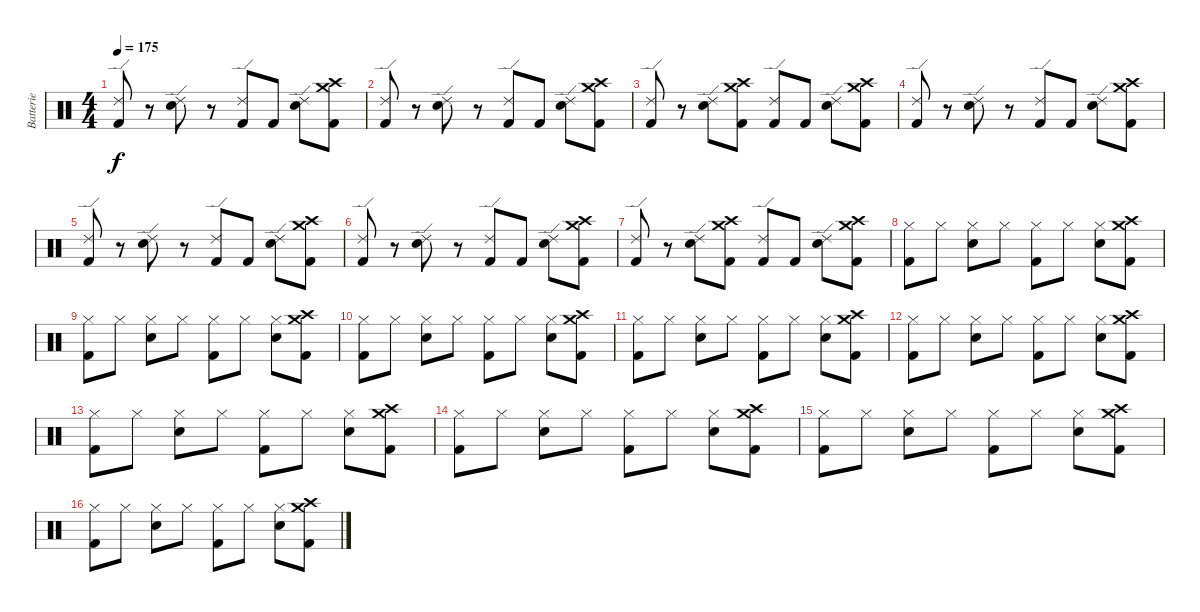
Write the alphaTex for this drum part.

\track ("Batterie" "Batterie") {instrument percussion}
\staff {score}
\articulation defaults
\ts (4 4)
\tempo 175
\clef neutral
\ks c
("Ride (edge) 2" "Kick (hit) 2").8{dy f} r.8 ("Ride (edge) 2" "Snare (hit) 2").8 r.8 ("Ride (edge) 2" "Kick (hit) 2").8 "Kick (hit) 2".8 ("Ride (edge) 2" "Snare (hit) 2").8 ("Crash medium (hit)" "Crash high (hit)" "Kick (hit) 2").8 |
("Ride (edge) 2" "Kick (hit) 2").8 r.8 ("Ride (edge) 2" "Snare (hit) 2").8 r.8 ("Ride (edge) 2" "Kick (hit) 2").8 "Kick (hit) 2".8 ("Ride (edge) 2" "Snare (hit) 2").8 ("Crash medium (hit)" "Crash high (hit)" "Kick (hit) 2").8 |
("Ride (edge) 2" "Kick (hit) 2").8 r.8 ("Ride (edge) 2" "Snare (hit) 2").8 ("Crash medium (hit)" "Crash high (hit)" "Kick (hit) 2").8 ("Ride (edge) 2" "Kick (hit) 2").8 "Kick (hit) 2".8 ("Ride (edge) 2" "Snare (hit) 2").8 ("Crash medium (hit)" "Crash high (hit)" "Kick (hit) 2").8 |
("Ride (edge) 2" "Kick (hit) 2").8 r.8 ("Ride (edge) 2" "Snare (hit) 2").8 r.8 ("Ride (edge) 2" "Kick (hit) 2").8 "Kick (hit) 2".8 ("Ride (edge) 2" "Snare (hit) 2").8 ("Crash medium (hit)" "Crash high (hit)" "Kick (hit) 2").8 |
("Ride (edge) 2" "Kick (hit) 2").8 r.8 ("Ride (edge) 2" "Snare (hit) 2").8 r.8 ("Ride (edge) 2" "Kick (hit) 2").8 "Kick (hit) 2".8 ("Ride (edge) 2" "Snare (hit) 2").8 ("Crash medium (hit)" "Crash high (hit)" "Kick (hit) 2").8 |
("Ride (edge) 2" "Kick (hit) 2").8 r.8 ("Ride (edge) 2" "Snare (hit) 2").8 r.8 ("Ride (edge) 2" "Kick (hit) 2").8 "Kick (hit) 2".8 ("Ride (edge) 2" "Snare (hit) 2").8 ("Crash medium (hit)" "Crash high (hit)" "Kick (hit) 2").8 |
("Ride (edge) 2" "Kick (hit) 2").8 r.8 ("Ride (edge) 2" "Snare (hit) 2").8 ("Crash medium (hit)" "Crash high (hit)" "Kick (hit) 2").8 ("Ride (edge) 2" "Kick (hit) 2").8 "Kick (hit) 2".8 ("Ride (edge) 2" "Snare (hit) 2").8 ("Crash medium (hit)" "Crash high (hit)" "Kick (hit) 2").8 |
("Hi-Hat (closed)" "Kick (hit) 2").8 "Hi-Hat (closed)".8 ("Hi-Hat (closed)" "Snare (hit) 2").8 "Hi-Hat (closed)".8 ("Hi-Hat (closed)" "Kick (hit) 2").8 "Hi-Hat (closed)".8 ("Hi-Hat (closed)" "Snare (hit) 2").8 ("Crash high (hit)" "Crash medium (hit)" "Kick (hit) 2").8 |
("Hi-Hat (closed)" "Kick (hit) 2").8 "Hi-Hat (closed)".8 ("Hi-Hat (closed)" "Snare (hit) 2").8 "Hi-Hat (closed)".8 ("Hi-Hat (closed)" "Kick (hit) 2").8 "Hi-Hat (closed)".8 ("Hi-Hat (closed)" "Snare (hit) 2").8 ("Crash high (hit)" "Crash medium (hit)" "Kick (hit) 2").8 |
("Hi-Hat (closed)" "Kick (hit) 2").8 "Hi-Hat (closed)".8 ("Hi-Hat (closed)" "Snare (hit) 2").8 "Hi-Hat (closed)".8 ("Hi-Hat (closed)" "Kick (hit) 2").8 "Hi-Hat (closed)".8 ("Hi-Hat (closed)" "Snare (hit) 2").8 ("Crash high (hit)" "Crash medium (hit)" "Kick (hit) 2").8 |
("Hi-Hat (closed)" "Kick (hit) 2").8 "Hi-Hat (closed)".8 ("Hi-Hat (closed)" "Snare (hit) 2").8 "Hi-Hat (closed)".8 ("Hi-Hat (closed)" "Kick (hit) 2").8 "Hi-Hat (closed)".8 ("Hi-Hat (closed)" "Snare (hit) 2").8 ("Crash high (hit)" "Crash medium (hit)" "Kick (hit) 2").8 |
("Hi-Hat (closed)" "Kick (hit) 2").8 "Hi-Hat (closed)".8 ("Hi-Hat (closed)" "Snare (hit) 2").8 "Hi-Hat (closed)".8 ("Hi-Hat (closed)" "Kick (hit) 2").8 "Hi-Hat (closed)".8 ("Hi-Hat (closed)" "Snare (hit) 2").8 ("Crash high (hit)" "Crash medium (hit)" "Kick (hit) 2").8 |
("Hi-Hat (closed)" "Kick (hit) 2").8 "Hi-Hat (closed)".8 ("Hi-Hat (closed)" "Snare (hit) 2").8 "Hi-Hat (closed)".8 ("Hi-Hat (closed)" "Kick (hit) 2").8 "Hi-Hat (closed)".8 ("Hi-Hat (closed)" "Snare (hit) 2").8 ("Crash high (hit)" "Crash medium (hit)" "Kick (hit) 2").8 |
("Hi-Hat (closed)" "Kick (hit) 2").8 "Hi-Hat (closed)".8 ("Hi-Hat (closed)" "Snare (hit) 2").8 "Hi-Hat (closed)".8 ("Hi-Hat (closed)" "Kick (hit) 2").8 "Hi-Hat (closed)".8 ("Hi-Hat (closed)" "Snare (hit) 2").8 ("Crash high (hit)" "Crash medium (hit)" "Kick (hit) 2").8 |
("Hi-Hat (closed)" "Kick (hit) 2").8 "Hi-Hat (closed)".8 ("Hi-Hat (closed)" "Snare (hit) 2").8 "Hi-Hat (closed)".8 ("Hi-Hat (closed)" "Kick (hit) 2").8 "Hi-Hat (closed)".8 ("Hi-Hat (closed)" "Snare (hit) 2").8 ("Crash high (hit)" "Crash medium (hit)" "Kick (hit) 2").8 |
("Hi-Hat (closed)" "Kick (hit) 2").8 "Hi-Hat (closed)".8 ("Hi-Hat (closed)" "Snare (hit) 2").8 "Hi-Hat (closed)".8 ("Hi-Hat (closed)" "Kick (hit) 2").8 "Hi-Hat (closed)".8 ("Hi-Hat (closed)" "Snare (hit) 2").8 ("Crash high (hit)" "Crash medium (hit)" "Kick (hit) 2").8
